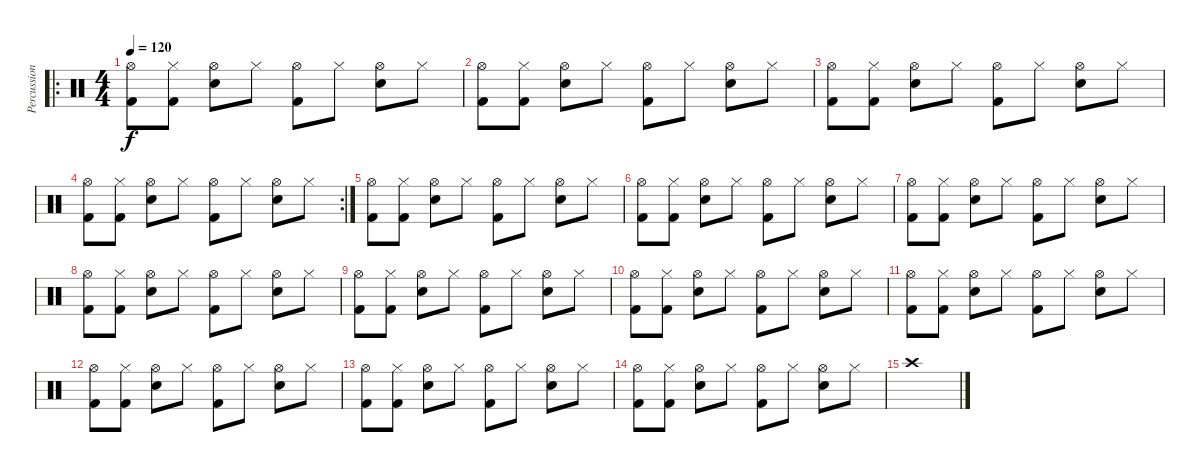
\track ("Percussioni" "Percussion") {instrument percussion}
\staff {score}
\articulation defaults
\ro
\ts (4 4)
\tempo 120
\clef neutral
\ks c
("Kick (hit) 2" "Hi-Hat (open)").8{dy f} ("Kick (hit) 2" "Hi-Hat (closed)").8 ("Electric Snare (hit)" "Hi-Hat (open)").8 "Hi-Hat (closed)".8 ("Kick (hit) 2" "Hi-Hat (open)").8 "Hi-Hat (closed)".8 ("Electric Snare (hit)" "Hi-Hat (open)").8 "Hi-Hat (closed)".8 |
("Kick (hit) 2" "Hi-Hat (open)").8 ("Kick (hit) 2" "Hi-Hat (closed)").8 ("Electric Snare (hit)" "Hi-Hat (open)").8 "Hi-Hat (closed)".8 ("Kick (hit) 2" "Hi-Hat (open)").8 "Hi-Hat (closed)".8 ("Electric Snare (hit)" "Hi-Hat (open)").8 "Hi-Hat (closed)".8 |
("Kick (hit) 2" "Hi-Hat (open)").8 ("Kick (hit) 2" "Hi-Hat (closed)").8 ("Electric Snare (hit)" "Hi-Hat (open)").8 "Hi-Hat (closed)".8 ("Kick (hit) 2" "Hi-Hat (open)").8 "Hi-Hat (closed)".8 ("Electric Snare (hit)" "Hi-Hat (open)").8 "Hi-Hat (closed)".8 |
\rc 2
("Kick (hit) 2" "Hi-Hat (open)").8 ("Kick (hit) 2" "Hi-Hat (closed)").8 ("Electric Snare (hit)" "Hi-Hat (open)").8 "Hi-Hat (closed)".8 ("Kick (hit) 2" "Hi-Hat (open)").8 "Hi-Hat (closed)".8 ("Electric Snare (hit)" "Hi-Hat (open)").8 "Hi-Hat (closed)".8 |
("Kick (hit) 2" "Hi-Hat (open)").8 ("Kick (hit) 2" "Hi-Hat (closed)").8 ("Electric Snare (hit)" "Hi-Hat (open)").8 "Hi-Hat (closed)".8 ("Kick (hit) 2" "Hi-Hat (open)").8 "Hi-Hat (closed)".8 ("Electric Snare (hit)" "Hi-Hat (open)").8 "Hi-Hat (closed)".8 |
("Kick (hit) 2" "Hi-Hat (open)").8 ("Kick (hit) 2" "Hi-Hat (closed)").8 ("Electric Snare (hit)" "Hi-Hat (open)").8 "Hi-Hat (closed)".8 ("Kick (hit) 2" "Hi-Hat (open)").8 "Hi-Hat (closed)".8 ("Electric Snare (hit)" "Hi-Hat (open)").8 "Hi-Hat (closed)".8 |
("Kick (hit) 2" "Hi-Hat (open)").8 ("Kick (hit) 2" "Hi-Hat (closed)").8 ("Electric Snare (hit)" "Hi-Hat (open)").8 "Hi-Hat (closed)".8 ("Kick (hit) 2" "Hi-Hat (open)").8 "Hi-Hat (closed)".8 ("Electric Snare (hit)" "Hi-Hat (open)").8 "Hi-Hat (closed)".8 |
("Kick (hit) 2" "Hi-Hat (open)").8 ("Kick (hit) 2" "Hi-Hat (closed)").8 ("Electric Snare (hit)" "Hi-Hat (open)").8 "Hi-Hat (closed)".8 ("Kick (hit) 2" "Hi-Hat (open)").8 "Hi-Hat (closed)".8 ("Electric Snare (hit)" "Hi-Hat (open)").8 "Hi-Hat (closed)".8 |
("Kick (hit) 2" "Hi-Hat (open)").8 ("Kick (hit) 2" "Hi-Hat (closed)").8 ("Electric Snare (hit)" "Hi-Hat (open)").8 "Hi-Hat (closed)".8 ("Kick (hit) 2" "Hi-Hat (open)").8 "Hi-Hat (closed)".8 ("Electric Snare (hit)" "Hi-Hat (open)").8 "Hi-Hat (closed)".8 |
("Kick (hit) 2" "Hi-Hat (open)").8 ("Kick (hit) 2" "Hi-Hat (closed)").8 ("Electric Snare (hit)" "Hi-Hat (open)").8 "Hi-Hat (closed)".8 ("Kick (hit) 2" "Hi-Hat (open)").8 "Hi-Hat (closed)".8 ("Electric Snare (hit)" "Hi-Hat (open)").8 "Hi-Hat (closed)".8 |
("Kick (hit) 2" "Hi-Hat (open)").8 ("Kick (hit) 2" "Hi-Hat (closed)").8 ("Electric Snare (hit)" "Hi-Hat (open)").8 "Hi-Hat (closed)".8 ("Kick (hit) 2" "Hi-Hat (open)").8 "Hi-Hat (closed)".8 ("Electric Snare (hit)" "Hi-Hat (open)").8 "Hi-Hat (closed)".8 |
("Kick (hit) 2" "Hi-Hat (open)").8 ("Kick (hit) 2" "Hi-Hat (closed)").8 ("Electric Snare (hit)" "Hi-Hat (open)").8 "Hi-Hat (closed)".8 ("Kick (hit) 2" "Hi-Hat (open)").8 "Hi-Hat (closed)".8 ("Electric Snare (hit)" "Hi-Hat (open)").8 "Hi-Hat (closed)".8 |
("Kick (hit) 2" "Hi-Hat (open)").8 ("Kick (hit) 2" "Hi-Hat (closed)").8 ("Electric Snare (hit)" "Hi-Hat (open)").8 "Hi-Hat (closed)".8 ("Kick (hit) 2" "Hi-Hat (open)").8 "Hi-Hat (closed)".8 ("Electric Snare (hit)" "Hi-Hat (open)").8 "Hi-Hat (closed)".8 |
("Kick (hit) 2" "Hi-Hat (open)").8 ("Kick (hit) 2" "Hi-Hat (closed)").8 ("Electric Snare (hit)" "Hi-Hat (open)").8 "Hi-Hat (closed)".8 ("Kick (hit) 2" "Hi-Hat (open)").8 "Hi-Hat (closed)".8 ("Electric Snare (hit)" "Hi-Hat (open)").8 "Hi-Hat (closed)".8 |
"Crash high (hit)".1
